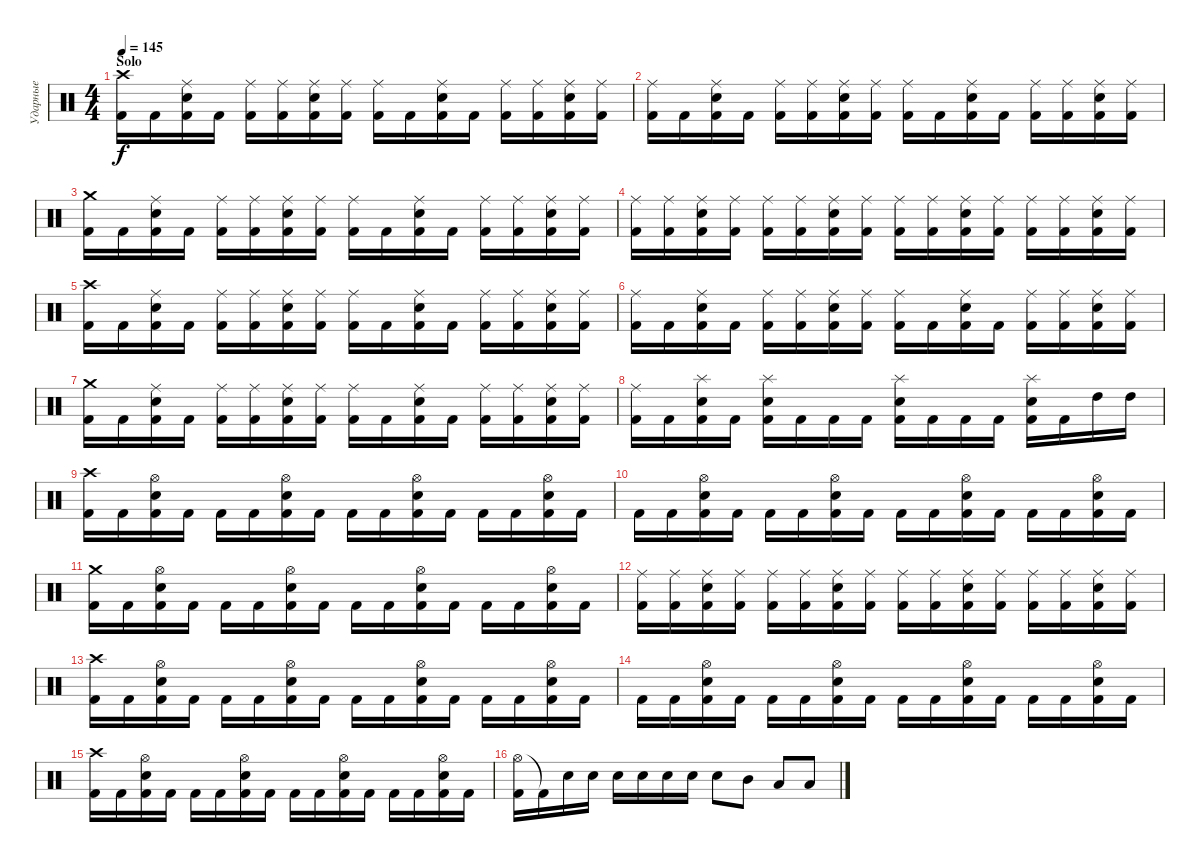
\track ("Ударные" "Ударные") {instrument percussion}
\staff {score}
\articulation defaults
\ts (4 4)
\section ("" "Solo")
\tempo 145
\clef neutral
\ks c
("Crash high (hit)" "Kick (hit) 2").16{dy f} "Kick (hit) 2".16 ("Ride (middle)" "Electric Snare (hit)" "Kick (hit) 2").16 "Kick (hit) 2".16 ("Ride (middle)" "Kick (hit) 2").16 ("Ride (middle)" "Kick (hit) 2").16 ("Ride (middle)" "Electric Snare (hit)" "Kick (hit) 2").16 ("Ride (middle)" "Kick (hit) 2").16 ("Ride (middle)" "Kick (hit) 2").16 "Kick (hit) 2".16 ("Ride (middle)" "Electric Snare (hit)" "Kick (hit) 2").16 "Kick (hit) 2".16 ("Ride (middle)" "Kick (hit) 2").16 ("Ride (middle)" "Kick (hit) 2").16 ("Ride (middle)" "Electric Snare (hit)" "Kick (hit) 2").16 ("Ride (middle)" "Kick (hit) 2").16 |
("Ride (middle)" "Kick (hit) 2").16 "Kick (hit) 2".16 ("Ride (middle)" "Electric Snare (hit)" "Kick (hit) 2").16 "Kick (hit) 2".16 ("Ride (middle)" "Kick (hit) 2").16 ("Ride (middle)" "Kick (hit) 2").16 ("Ride (middle)" "Electric Snare (hit)" "Kick (hit) 2").16 ("Ride (middle)" "Kick (hit) 2").16 ("Ride (middle)" "Kick (hit) 2").16 "Kick (hit) 2".16 ("Ride (middle)" "Electric Snare (hit)" "Kick (hit) 2").16 "Kick (hit) 2".16 ("Ride (middle)" "Kick (hit) 2").16 ("Ride (middle)" "Kick (hit) 2").16 ("Ride (middle)" "Electric Snare (hit)" "Kick (hit) 2").16 ("Ride (middle)" "Kick (hit) 2").16 |
("Crash medium (hit)" "Kick (hit) 2").16 "Kick (hit) 2".16 ("Ride (middle)" "Electric Snare (hit)" "Kick (hit) 2").16 "Kick (hit) 2".16 ("Ride (middle)" "Kick (hit) 2").16 ("Ride (middle)" "Kick (hit) 2").16 ("Ride (middle)" "Electric Snare (hit)" "Kick (hit) 2").16 ("Ride (middle)" "Kick (hit) 2").16 ("Ride (middle)" "Kick (hit) 2").16 "Kick (hit) 2".16 ("Ride (middle)" "Electric Snare (hit)" "Kick (hit) 2").16 "Kick (hit) 2".16 ("Ride (middle)" "Kick (hit) 2").16 ("Ride (middle)" "Kick (hit) 2").16 ("Ride (middle)" "Electric Snare (hit)" "Kick (hit) 2").16 ("Ride (middle)" "Kick (hit) 2").16 |
("Ride (middle)" "Kick (hit) 2").16 ("Ride (middle)" "Kick (hit) 2").16 ("Ride (middle)" "Electric Snare (hit)" "Kick (hit) 2").16 ("Ride (middle)" "Kick (hit) 2").16 ("Ride (middle)" "Kick (hit) 2").16 ("Ride (middle)" "Kick (hit) 2").16 ("Ride (middle)" "Electric Snare (hit)" "Kick (hit) 2").16 ("Ride (middle)" "Kick (hit) 2").16 ("Ride (middle)" "Kick (hit) 2").16 ("Ride (middle)" "Kick (hit) 2").16 ("Ride (middle)" "Electric Snare (hit)" "Kick (hit) 2").16 ("Ride (middle)" "Kick (hit) 2").16 ("Ride (middle)" "Kick (hit) 2").16 ("Ride (middle)" "Kick (hit) 2").16 ("Ride (middle)" "Electric Snare (hit)" "Kick (hit) 2").16 ("Ride (middle)" "Kick (hit) 2").16 |
("Crash high (hit)" "Kick (hit) 2").16 "Kick (hit) 2".16 ("Ride (middle)" "Electric Snare (hit)" "Kick (hit) 2").16 "Kick (hit) 2".16 ("Ride (middle)" "Kick (hit) 2").16 ("Ride (middle)" "Kick (hit) 2").16 ("Ride (middle)" "Electric Snare (hit)" "Kick (hit) 2").16 ("Ride (middle)" "Kick (hit) 2").16 ("Ride (middle)" "Kick (hit) 2").16 "Kick (hit) 2".16 ("Ride (middle)" "Electric Snare (hit)" "Kick (hit) 2").16 "Kick (hit) 2".16 ("Ride (middle)" "Kick (hit) 2").16 ("Ride (middle)" "Kick (hit) 2").16 ("Ride (middle)" "Electric Snare (hit)" "Kick (hit) 2").16 ("Ride (middle)" "Kick (hit) 2").16 |
("Ride (middle)" "Kick (hit) 2").16 "Kick (hit) 2".16 ("Ride (middle)" "Electric Snare (hit)" "Kick (hit) 2").16 "Kick (hit) 2".16 ("Ride (middle)" "Kick (hit) 2").16 ("Ride (middle)" "Kick (hit) 2").16 ("Ride (middle)" "Electric Snare (hit)" "Kick (hit) 2").16 ("Ride (middle)" "Kick (hit) 2").16 ("Ride (middle)" "Kick (hit) 2").16 "Kick (hit) 2".16 ("Ride (middle)" "Electric Snare (hit)" "Kick (hit) 2").16 "Kick (hit) 2".16 ("Ride (middle)" "Kick (hit) 2").16 ("Ride (middle)" "Kick (hit) 2").16 ("Ride (middle)" "Electric Snare (hit)" "Kick (hit) 2").16 ("Ride (middle)" "Kick (hit) 2").16 |
("Crash medium (hit)" "Kick (hit) 2").16 "Kick (hit) 2".16 ("Ride (middle)" "Electric Snare (hit)" "Kick (hit) 2").16 "Kick (hit) 2".16 ("Ride (middle)" "Kick (hit) 2").16 ("Ride (middle)" "Kick (hit) 2").16 ("Ride (middle)" "Electric Snare (hit)" "Kick (hit) 2").16 ("Ride (middle)" "Kick (hit) 2").16 ("Ride (middle)" "Kick (hit) 2").16 "Kick (hit) 2".16 ("Ride (middle)" "Electric Snare (hit)" "Kick (hit) 2").16 "Kick (hit) 2".16 ("Ride (middle)" "Kick (hit) 2").16 ("Ride (middle)" "Kick (hit) 2").16 ("Ride (middle)" "Electric Snare (hit)" "Kick (hit) 2").16 ("Ride (middle)" "Kick (hit) 2").16 |
("Ride (middle)" "Kick (hit) 2").16 "Kick (hit) 2".16 ("Splash (hit)" "Electric Snare (hit)" "Kick (hit) 2").16 "Kick (hit) 2".16 ("Splash (hit)" "Electric Snare (hit)" "Kick (hit) 2").16 "Kick (hit) 2".16 "Kick (hit) 2".16 "Kick (hit) 2".16 ("Splash (hit)" "Electric Snare (hit)" "Kick (hit) 2").16 "Kick (hit) 2".16 "Kick (hit) 2".16 "Kick (hit) 2".16 ("Splash (hit)" "Electric Snare (hit)" "Kick (hit) 2").16 "Kick (hit) 2".16 "High Tom (hit)".16 "High Tom (hit)".16 |
("Crash high (hit)" "Kick (hit) 2").16 "Kick (hit) 2".16 ("Hi-Hat (open)" "Electric Snare (hit)" "Kick (hit) 2").16 "Kick (hit) 2".16 "Kick (hit) 2".16 "Kick (hit) 2".16 ("Hi-Hat (open)" "Electric Snare (hit)" "Kick (hit) 2").16 "Kick (hit) 2".16 "Kick (hit) 2".16 "Kick (hit) 2".16 ("Hi-Hat (open)" "Electric Snare (hit)" "Kick (hit) 2").16 "Kick (hit) 2".16 "Kick (hit) 2".16 "Kick (hit) 2".16 ("Hi-Hat (open)" "Electric Snare (hit)" "Kick (hit) 2").16 "Kick (hit) 2".16 |
"Kick (hit) 2".16 "Kick (hit) 2".16 ("Hi-Hat (open)" "Electric Snare (hit)" "Kick (hit) 2").16 "Kick (hit) 2".16 "Kick (hit) 2".16 "Kick (hit) 2".16 ("Hi-Hat (open)" "Electric Snare (hit)" "Kick (hit) 2").16 "Kick (hit) 2".16 "Kick (hit) 2".16 "Kick (hit) 2".16 ("Hi-Hat (open)" "Electric Snare (hit)" "Kick (hit) 2").16 "Kick (hit) 2".16 "Kick (hit) 2".16 "Kick (hit) 2".16 ("Hi-Hat (open)" "Electric Snare (hit)" "Kick (hit) 2").16 "Kick (hit) 2".16 |
("Crash medium (hit)" "Kick (hit) 2").16 "Kick (hit) 2".16 ("Hi-Hat (open)" "Electric Snare (hit)" "Kick (hit) 2").16 "Kick (hit) 2".16 "Kick (hit) 2".16 "Kick (hit) 2".16 ("Hi-Hat (open)" "Electric Snare (hit)" "Kick (hit) 2").16 "Kick (hit) 2".16 "Kick (hit) 2".16 "Kick (hit) 2".16 ("Hi-Hat (open)" "Electric Snare (hit)" "Kick (hit) 2").16 "Kick (hit) 2".16 "Kick (hit) 2".16 "Kick (hit) 2".16 ("Hi-Hat (open)" "Electric Snare (hit)" "Kick (hit) 2").16 "Kick (hit) 2".16 |
("Ride (middle)" "Kick (hit) 2").16 ("Ride (middle)" "Kick (hit) 2").16 ("Ride (middle)" "Electric Snare (hit)" "Kick (hit) 2").16 ("Ride (middle)" "Kick (hit) 2").16 ("Ride (middle)" "Kick (hit) 2").16 ("Ride (middle)" "Kick (hit) 2").16 ("Ride (middle)" "Electric Snare (hit)" "Kick (hit) 2").16 ("Ride (middle)" "Kick (hit) 2").16 ("Ride (middle)" "Kick (hit) 2").16 ("Ride (middle)" "Kick (hit) 2").16 ("Ride (middle)" "Electric Snare (hit)" "Kick (hit) 2").16 ("Ride (middle)" "Kick (hit) 2").16 ("Ride (middle)" "Kick (hit) 2").16 ("Ride (middle)" "Kick (hit) 2").16 ("Ride (middle)" "Electric Snare (hit)" "Kick (hit) 2").16 ("Ride (middle)" "Kick (hit) 2").16 |
("Crash high (hit)" "Kick (hit) 2").16 "Kick (hit) 2".16 ("Hi-Hat (open)" "Electric Snare (hit)" "Kick (hit) 2").16 "Kick (hit) 2".16 "Kick (hit) 2".16 "Kick (hit) 2".16 ("Hi-Hat (open)" "Electric Snare (hit)" "Kick (hit) 2").16 "Kick (hit) 2".16 "Kick (hit) 2".16 "Kick (hit) 2".16 ("Hi-Hat (open)" "Electric Snare (hit)" "Kick (hit) 2").16 "Kick (hit) 2".16 "Kick (hit) 2".16 "Kick (hit) 2".16 ("Hi-Hat (open)" "Electric Snare (hit)" "Kick (hit) 2").16 "Kick (hit) 2".16 |
"Kick (hit) 2".16 "Kick (hit) 2".16 ("Hi-Hat (open)" "Electric Snare (hit)" "Kick (hit) 2").16 "Kick (hit) 2".16 "Kick (hit) 2".16 "Kick (hit) 2".16 ("Hi-Hat (open)" "Electric Snare (hit)" "Kick (hit) 2").16 "Kick (hit) 2".16 "Kick (hit) 2".16 "Kick (hit) 2".16 ("Hi-Hat (open)" "Electric Snare (hit)" "Kick (hit) 2").16 "Kick (hit) 2".16 "Kick (hit) 2".16 "Kick (hit) 2".16 ("Hi-Hat (open)" "Electric Snare (hit)" "Kick (hit) 2").16 "Kick (hit) 2".16 |
("Crash high (hit)" "Kick (hit) 2").16 "Kick (hit) 2".16 ("Hi-Hat (open)" "Electric Snare (hit)" "Kick (hit) 2").16 "Kick (hit) 2".16 "Kick (hit) 2".16 "Kick (hit) 2".16 ("Hi-Hat (open)" "Electric Snare (hit)" "Kick (hit) 2").16 "Kick (hit) 2".16 "Kick (hit) 2".16 "Kick (hit) 2".16 ("Hi-Hat (open)" "Electric Snare (hit)" "Kick (hit) 2").16 "Kick (hit) 2".16 "Kick (hit) 2".16 "Kick (hit) 2".16 ("Hi-Hat (open)" "Electric Snare (hit)" "Kick (hit) 2").16 "Kick (hit) 2".16 |
("Hi-Hat (open)" "Kick (hit) 2").16 "Kick (hit) 2"{t}.16 "Electric Snare (hit)".16 "Electric Snare (hit)".16 "Electric Snare (hit)".16 "Electric Snare (hit)".16 "Electric Snare (hit)".16 "Electric Snare (hit)".16 "Electric Snare (hit)".8 "Mid Tom (hit)".8 "Low Tom (hit)".8 "Low Tom (hit)".8
